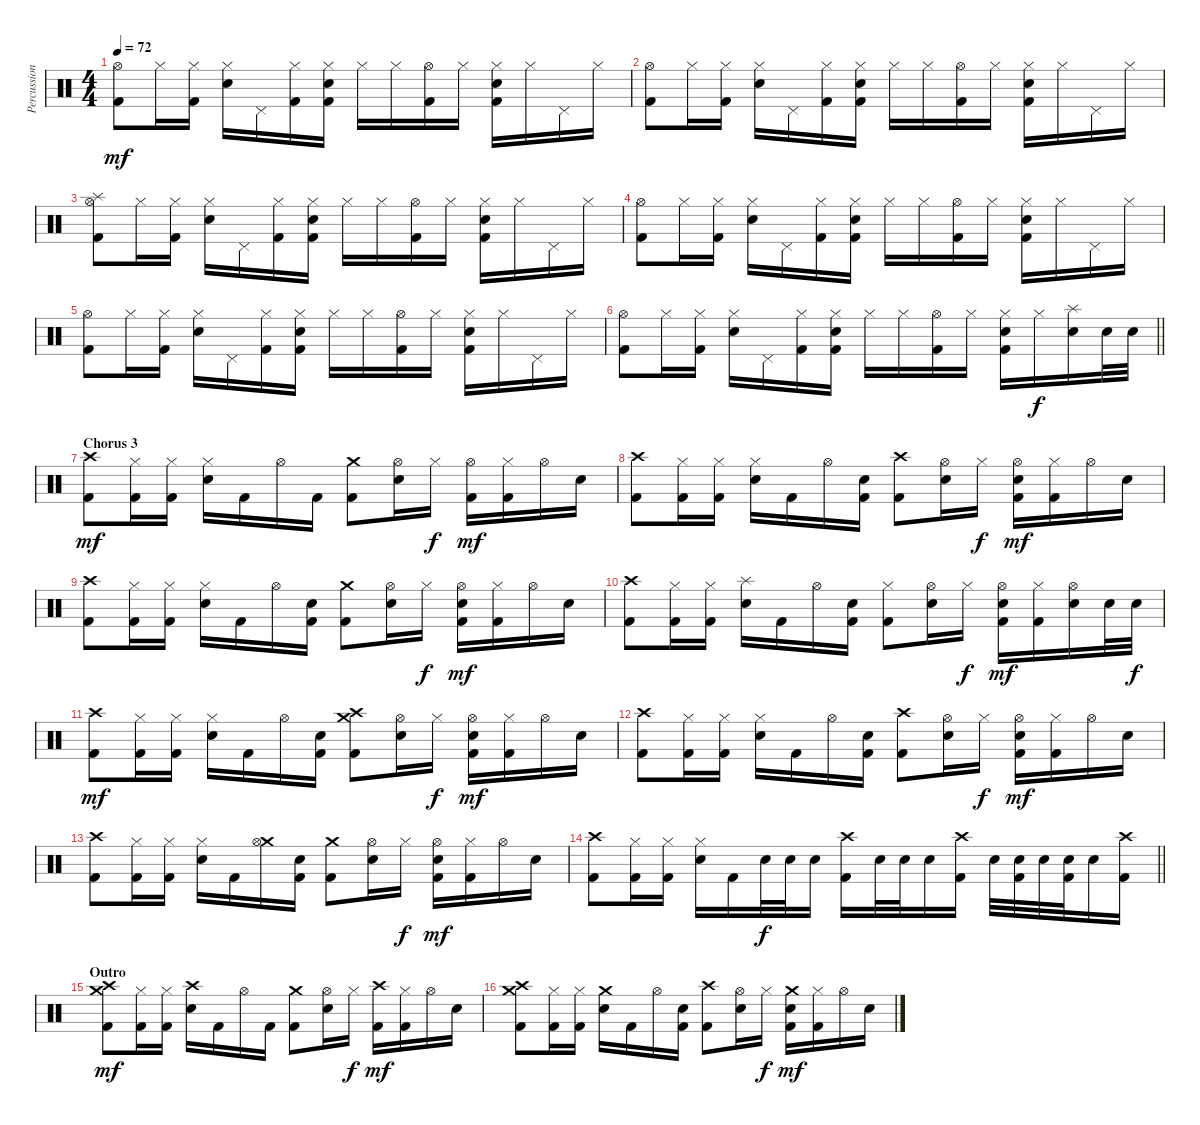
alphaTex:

\track ("Percussion" "Percussion") {instrument percussion}
\staff {score}
\articulation defaults
\ts (4 4)
\tempo 72
\clef neutral
\ks c
("Hi-Hat (open)" "Kick (hit) 2").8{dy mf} "Hi-Hat (closed)".16 ("Hi-Hat (closed)" "Kick (hit) 2").16 ("Hi-Hat (closed)" "Snare (hit) 2").16 "Pedal Hi-Hat (hit)".16 ("Hi-Hat (closed)" "Kick (hit) 2").16 ("Hi-Hat (closed)" "Snare (hit) 2" "Kick (hit) 2").16 "Hi-Hat (closed)".16 "Hi-Hat (closed)".16 ("Hi-Hat (open)" "Kick (hit) 2").16 "Hi-Hat (closed)".16 ("Hi-Hat (closed)" "Snare (hit) 2" "Kick (hit) 2").16 "Hi-Hat (closed)".16 "Pedal Hi-Hat (hit)".16 "Hi-Hat (closed)".16 |
("Hi-Hat (open)" "Kick (hit) 2").8 "Hi-Hat (closed)".16 ("Hi-Hat (closed)" "Kick (hit) 2").16 ("Hi-Hat (closed)" "Snare (hit) 2").16 "Pedal Hi-Hat (hit)".16 ("Hi-Hat (closed)" "Kick (hit) 2").16 ("Hi-Hat (closed)" "Snare (hit) 2" "Kick (hit) 2").16 "Hi-Hat (closed)".16 "Hi-Hat (closed)".16 ("Hi-Hat (open)" "Kick (hit) 2").16 "Hi-Hat (closed)".16 ("Hi-Hat (closed)" "Snare (hit) 2" "Kick (hit) 2").16 "Hi-Hat (closed)".16 "Pedal Hi-Hat (hit)".16 "Hi-Hat (closed)".16 |
("Hi-Hat (open)" "Splash (hit)" "Kick (hit) 2").8 "Hi-Hat (closed)".16 ("Hi-Hat (closed)" "Kick (hit) 2").16 ("Hi-Hat (closed)" "Snare (hit) 2").16 "Pedal Hi-Hat (hit)".16 ("Hi-Hat (closed)" "Kick (hit) 2").16 ("Hi-Hat (closed)" "Snare (hit) 2" "Kick (hit) 2").16 "Hi-Hat (closed)".16 "Hi-Hat (closed)".16 ("Hi-Hat (open)" "Kick (hit) 2").16 "Hi-Hat (closed)".16 ("Hi-Hat (closed)" "Snare (hit) 2" "Kick (hit) 2").16 "Hi-Hat (closed)".16 "Pedal Hi-Hat (hit)".16 "Hi-Hat (closed)".16 |
("Hi-Hat (open)" "Kick (hit) 2").8 "Hi-Hat (closed)".16 ("Hi-Hat (closed)" "Kick (hit) 2").16 ("Hi-Hat (closed)" "Snare (hit) 2").16 "Pedal Hi-Hat (hit)".16 ("Hi-Hat (closed)" "Kick (hit) 2").16 ("Hi-Hat (closed)" "Snare (hit) 2" "Kick (hit) 2").16 "Hi-Hat (closed)".16 "Hi-Hat (closed)".16 ("Hi-Hat (open)" "Kick (hit) 2").16 "Hi-Hat (closed)".16 ("Hi-Hat (closed)" "Snare (hit) 2" "Kick (hit) 2").16 "Hi-Hat (closed)".16 "Pedal Hi-Hat (hit)".16 "Hi-Hat (closed)".16 |
("Hi-Hat (open)" "Kick (hit) 2").8 "Hi-Hat (closed)".16 ("Hi-Hat (closed)" "Kick (hit) 2").16 ("Hi-Hat (closed)" "Snare (hit) 2").16 "Pedal Hi-Hat (hit)".16 ("Hi-Hat (closed)" "Kick (hit) 2").16 ("Hi-Hat (closed)" "Snare (hit) 2" "Kick (hit) 2").16 "Hi-Hat (closed)".16 "Hi-Hat (closed)".16 ("Hi-Hat (open)" "Kick (hit) 2").16 "Hi-Hat (closed)".16 ("Hi-Hat (closed)" "Snare (hit) 2" "Kick (hit) 2").16 "Hi-Hat (closed)".16 "Pedal Hi-Hat (hit)".16 "Hi-Hat (closed)".16 |
\barLineRight lightlight
("Hi-Hat (open)" "Kick (hit) 2").8 "Hi-Hat (closed)".16 ("Hi-Hat (closed)" "Kick (hit) 2").16 ("Hi-Hat (closed)" "Snare (hit) 2").16 "Pedal Hi-Hat (hit)".16 ("Hi-Hat (closed)" "Kick (hit) 2").16 ("Hi-Hat (closed)" "Snare (hit) 2" "Kick (hit) 2").16 "Hi-Hat (closed)".16 "Hi-Hat (closed)".16 ("Hi-Hat (open)" "Kick (hit) 2").16 "Hi-Hat (closed)".16 ("Hi-Hat (closed)" "Snare (hit) 2" "Kick (hit) 2").16 "Hi-Hat (closed)".16{dy f} ("Splash (hit)" "Snare (hit) 2").16 "Snare (hit) 2".32 "Snare (hit) 2".32 |
\section ("" "Chorus 3")
("Crash high (hit)" "Kick (hit) 2").8{dy mf} ("Hi-Hat (closed)" "Kick (hit) 2").16 ("Hi-Hat (closed)" "Kick (hit) 2").16 ("Hi-Hat (closed)" "Snare (hit) 2").16 "Kick (hit) 2".16 "Hi-Hat (open)".16 "Kick (hit) 2".16 ("Crash medium (hit)" "Kick (hit) 2").8 ("Hi-Hat (open)" "Snare (hit) 2").16 "Hi-Hat (closed)".16{dy f} ("Hi-Hat (open)" "Kick (hit) 2").16{dy mf} ("Hi-Hat (closed)" "Kick (hit) 2").16 "Hi-Hat (open)".16 "Snare (hit) 2".16 |
("Crash high (hit)" "Kick (hit) 2").8 ("Hi-Hat (closed)" "Kick (hit) 2").16 ("Hi-Hat (closed)" "Kick (hit) 2").16 ("Hi-Hat (closed)" "Snare (hit) 2").16 "Kick (hit) 2".16 "Hi-Hat (open)".16 ("Snare (hit) 2" "Kick (hit) 2").16 ("Crash high (hit)" "Kick (hit) 2").8 ("Hi-Hat (open)" "Snare (hit) 2").16 "Hi-Hat (closed)".16{dy f} ("Hi-Hat (open)" "Snare (hit) 2" "Kick (hit) 2").16{dy mf} ("Hi-Hat (closed)" "Kick (hit) 2").16 "Hi-Hat (open)".16 "Snare (hit) 2".16 |
("Crash high (hit)" "Kick (hit) 2").8 ("Hi-Hat (closed)" "Kick (hit) 2").16 ("Hi-Hat (closed)" "Kick (hit) 2").16 ("Hi-Hat (closed)" "Snare (hit) 2").16 "Kick (hit) 2".16 "Hi-Hat (open)".16 ("Snare (hit) 2" "Kick (hit) 2").16 ("Crash medium (hit)" "Kick (hit) 2").8 ("Hi-Hat (open)" "Snare (hit) 2").16 "Hi-Hat (closed)".16{dy f} ("Hi-Hat (open)" "Snare (hit) 2" "Kick (hit) 2").16{dy mf} ("Hi-Hat (closed)" "Kick (hit) 2").16 "Hi-Hat (open)".16 "Snare (hit) 2".16 |
("Crash high (hit)" "Kick (hit) 2").8 ("Hi-Hat (closed)" "Kick (hit) 2").16 ("Hi-Hat (closed)" "Kick (hit) 2").16 ("Splash (hit)" "Snare (hit) 2").16 "Kick (hit) 2".16 "Hi-Hat (open)".16 ("Snare (hit) 2" "Kick (hit) 2").16 ("Hi-Hat (closed)" "Kick (hit) 2").8 ("Hi-Hat (open)" "Snare (hit) 2").16 "Hi-Hat (closed)".16{dy f} ("Hi-Hat (open)" "Snare (hit) 2" "Kick (hit) 2").16{dy mf} ("Hi-Hat (closed)" "Kick (hit) 2").16 ("Hi-Hat (open)" "Snare (hit) 2").16 "Snare (hit) 2".32 "Snare (hit) 2".32{dy f} |
("Crash high (hit)" "Kick (hit) 2").8{dy mf} ("Hi-Hat (closed)" "Kick (hit) 2").16 ("Hi-Hat (closed)" "Kick (hit) 2").16 ("Hi-Hat (closed)" "Snare (hit) 2").16 "Kick (hit) 2".16 "Hi-Hat (open)".16 ("Snare (hit) 2" "Kick (hit) 2").16 ("Crash medium (hit)" "Crash high (hit)" "Kick (hit) 2").8 ("Hi-Hat (open)" "Snare (hit) 2").16 "Hi-Hat (closed)".16{dy f} ("Hi-Hat (open)" "Snare (hit) 2" "Kick (hit) 2").16{dy mf} ("Hi-Hat (closed)" "Kick (hit) 2").16 "Hi-Hat (open)".16 "Snare (hit) 2".16 |
("Crash high (hit)" "Kick (hit) 2").8 ("Hi-Hat (closed)" "Kick (hit) 2").16 ("Hi-Hat (closed)" "Kick (hit) 2").16 ("Hi-Hat (closed)" "Snare (hit) 2").16 "Kick (hit) 2".16 "Hi-Hat (open)".16 ("Snare (hit) 2" "Kick (hit) 2").16 ("Crash high (hit)" "Kick (hit) 2").8 ("Hi-Hat (open)" "Snare (hit) 2").16 "Hi-Hat (closed)".16{dy f} ("Hi-Hat (open)" "Snare (hit) 2" "Kick (hit) 2").16{dy mf} ("Hi-Hat (closed)" "Kick (hit) 2").16 "Hi-Hat (open)".16 "Snare (hit) 2".16 |
("Crash high (hit)" "Kick (hit) 2").8 ("Hi-Hat (closed)" "Kick (hit) 2").16 ("Hi-Hat (closed)" "Kick (hit) 2").16 ("Hi-Hat (closed)" "Snare (hit) 2").16 "Kick (hit) 2".16 ("Crash medium (hit)" "Hi-Hat (open)").16 ("Snare (hit) 2" "Kick (hit) 2").16 ("Crash medium (hit)" "Kick (hit) 2").8 ("Hi-Hat (open)" "Snare (hit) 2").16 "Hi-Hat (closed)".16{dy f} ("Hi-Hat (open)" "Snare (hit) 2" "Kick (hit) 2").16{dy mf} ("Hi-Hat (closed)" "Kick (hit) 2").16 "Hi-Hat (open)".16 "Snare (hit) 2".16 |
\barLineRight lightlight
("Crash high (hit)" "Kick (hit) 2").8 ("Hi-Hat (closed)" "Kick (hit) 2").16 ("Hi-Hat (closed)" "Kick (hit) 2").16 ("Hi-Hat (closed)" "Snare (hit) 2").16 "Kick (hit) 2".16 "Snare (hit) 2".32{dy f} "Snare (hit) 2".32 "Snare (hit) 2".16 ("Crash high (hit)" "Kick (hit) 2").16 "Snare (hit) 2".32 "Snare (hit) 2".32 "Snare (hit) 2".16 ("Crash high (hit)" "Kick (hit) 2").16 "Snare (hit) 2".32 ("Snare (hit) 2" "Kick (hit) 2").32 "Snare (hit) 2".32 ("Snare (hit) 2" "Kick (hit) 2").32 "Snare (hit) 2".16 ("Crash high (hit)" "Kick (hit) 2").16 |
\section ("" "Outro")
("Crash medium (hit)" "Crash high (hit)" "Kick (hit) 2").8{dy mf} ("Hi-Hat (closed)" "Kick (hit) 2").16 ("Hi-Hat (closed)" "Kick (hit) 2").16 ("Crash high (hit)" "Snare (hit) 2").16 "Kick (hit) 2".16 "Hi-Hat (open)".16 "Kick (hit) 2".16 ("Crash medium (hit)" "Kick (hit) 2").8 ("Hi-Hat (open)" "Snare (hit) 2").16 "Hi-Hat (closed)".16{dy f} ("Crash high (hit)" "Kick (hit) 2").16{dy mf} ("Hi-Hat (closed)" "Kick (hit) 2").16 "Hi-Hat (open)".16 "Snare (hit) 2".16 |
("Crash medium (hit)" "Crash high (hit)" "Kick (hit) 2").8 ("Hi-Hat (closed)" "Kick (hit) 2").16 ("Hi-Hat (closed)" "Kick (hit) 2").16 ("Crash medium (hit)" "Snare (hit) 2").16 "Kick (hit) 2".16 "Hi-Hat (open)".16 ("Snare (hit) 2" "Kick (hit) 2").16 ("Crash high (hit)" "Kick (hit) 2").8 ("Hi-Hat (open)" "Snare (hit) 2").16 "Hi-Hat (closed)".16{dy f} ("Crash medium (hit)" "Snare (hit) 2" "Kick (hit) 2").16{dy mf} ("Hi-Hat (closed)" "Kick (hit) 2").16 "Hi-Hat (open)".16 "Snare (hit) 2".16
